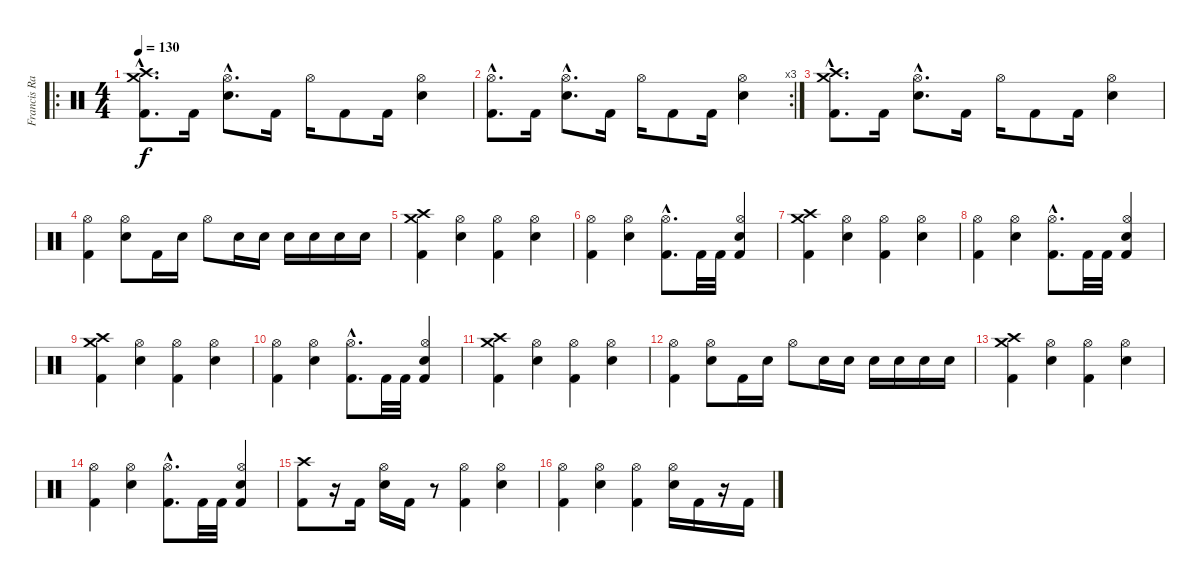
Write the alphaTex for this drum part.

\track ("Francis Ramirez" "Francis Ra") {instrument percussion}
\staff {score}
\articulation defaults
\ro
\ts (4 4)
\tempo 130
\clef neutral
\ks c
("Crash high (hit)"{hac} "Crash medium (hit)"{hac} "Kick (hit) 2"{hac}).8{d dy f} "Kick (hit) 2".16 ("Hi-Hat (open)"{hac} "Electric Snare (hit)"{hac}).8{d} "Kick (hit) 2".16 "Hi-Hat (open)".16 "Kick (hit) 2".8 "Kick (hit) 2".16 ("Hi-Hat (open)" "Electric Snare (hit)").4 |
\rc 3
("Hi-Hat (open)"{hac} "Kick (hit) 2"{hac}).8{d} "Kick (hit) 2".16 ("Hi-Hat (open)"{hac} "Electric Snare (hit)"{hac}).8{d} "Kick (hit) 2".16 "Hi-Hat (open)".16 "Kick (hit) 2".8 "Kick (hit) 2".16 ("Hi-Hat (open)" "Electric Snare (hit)").4 |
("Crash high (hit)"{hac} "Crash medium (hit)"{hac} "Kick (hit) 2"{hac}).8{d} "Kick (hit) 2".16 ("Hi-Hat (open)"{hac} "Electric Snare (hit)"{hac}).8{d} "Kick (hit) 2".16 "Hi-Hat (open)".16 "Kick (hit) 2".8 "Kick (hit) 2".16 ("Hi-Hat (open)" "Electric Snare (hit)").4 |
("Hi-Hat (open)" "Kick (hit) 2").4 ("Hi-Hat (open)" "Electric Snare (hit)").8 "Kick (hit) 2".16 "Electric Snare (hit)".16 "Hi-Hat (open)".8 "Electric Snare (hit)".16 "Electric Snare (hit)".16 "Electric Snare (hit)".16 "Electric Snare (hit)".16 "Electric Snare (hit)".16 "Electric Snare (hit)".16 |
("Crash high (hit)" "Crash medium (hit)" "Kick (hit) 2").4 ("Hi-Hat (open)" "Electric Snare (hit)").4 ("Hi-Hat (open)" "Kick (hit) 2").4 ("Hi-Hat (open)" "Electric Snare (hit)").4 |
("Hi-Hat (open)" "Kick (hit) 2").4 ("Hi-Hat (open)" "Electric Snare (hit)").4 ("Hi-Hat (open)"{hac} "Kick (hit) 2"{hac}).8{d} "Kick (hit) 2".32 "Kick (hit) 2".32 ("Hi-Hat (open)" "Electric Snare (hit)" "Kick (hit) 2").4 |
("Crash high (hit)" "Crash medium (hit)" "Kick (hit) 2").4 ("Hi-Hat (open)" "Electric Snare (hit)").4 ("Hi-Hat (open)" "Kick (hit) 2").4 ("Hi-Hat (open)" "Electric Snare (hit)").4 |
("Hi-Hat (open)" "Kick (hit) 2").4 ("Hi-Hat (open)" "Electric Snare (hit)").4 ("Hi-Hat (open)"{hac} "Kick (hit) 2"{hac}).8{d} "Kick (hit) 2".32 "Kick (hit) 2".32 ("Hi-Hat (open)" "Electric Snare (hit)" "Kick (hit) 2").4 |
("Crash high (hit)" "Crash medium (hit)" "Kick (hit) 2").4 ("Hi-Hat (open)" "Electric Snare (hit)").4 ("Hi-Hat (open)" "Kick (hit) 2").4 ("Hi-Hat (open)" "Electric Snare (hit)").4 |
("Hi-Hat (open)" "Kick (hit) 2").4 ("Hi-Hat (open)" "Electric Snare (hit)").4 ("Hi-Hat (open)"{hac} "Kick (hit) 2"{hac}).8{d} "Kick (hit) 2".32 "Kick (hit) 2".32 ("Hi-Hat (open)" "Electric Snare (hit)" "Kick (hit) 2").4 |
("Crash high (hit)" "Crash medium (hit)" "Kick (hit) 2").4 ("Hi-Hat (open)" "Electric Snare (hit)").4 ("Hi-Hat (open)" "Kick (hit) 2").4 ("Hi-Hat (open)" "Electric Snare (hit)").4 |
("Hi-Hat (open)" "Kick (hit) 2").4 ("Hi-Hat (open)" "Electric Snare (hit)").8 "Kick (hit) 2".16 "Electric Snare (hit)".16 "Hi-Hat (open)".8 "Electric Snare (hit)".16 "Electric Snare (hit)".16 "Electric Snare (hit)".16 "Electric Snare (hit)".16 "Electric Snare (hit)".16 "Electric Snare (hit)".16 |
("Crash high (hit)" "Crash medium (hit)" "Kick (hit) 2").4 ("Hi-Hat (open)" "Electric Snare (hit)").4 ("Hi-Hat (open)" "Kick (hit) 2").4 ("Hi-Hat (open)" "Electric Snare (hit)").4 |
("Hi-Hat (open)" "Kick (hit) 2").4 ("Hi-Hat (open)" "Electric Snare (hit)").4 ("Hi-Hat (open)"{hac} "Kick (hit) 2"{hac}).8{d} "Kick (hit) 2".32 "Kick (hit) 2".32 ("Hi-Hat (open)" "Electric Snare (hit)" "Kick (hit) 2").4 |
("Crash high (hit)" "Kick (hit) 2").8 r.16 "Kick (hit) 2".16 ("Hi-Hat (open)" "Electric Snare (hit)").16 "Kick (hit) 2".16 r.8 ("Hi-Hat (open)" "Kick (hit) 2").4 ("Hi-Hat (open)" "Electric Snare (hit)").4 |
("Hi-Hat (open)" "Kick (hit) 2").4 ("Hi-Hat (open)" "Electric Snare (hit)").4 ("Hi-Hat (open)" "Kick (hit) 2").4 ("Hi-Hat (open)" "Electric Snare (hit)").16 "Kick (hit) 2".16 r.16 "Kick (hit) 2".16
